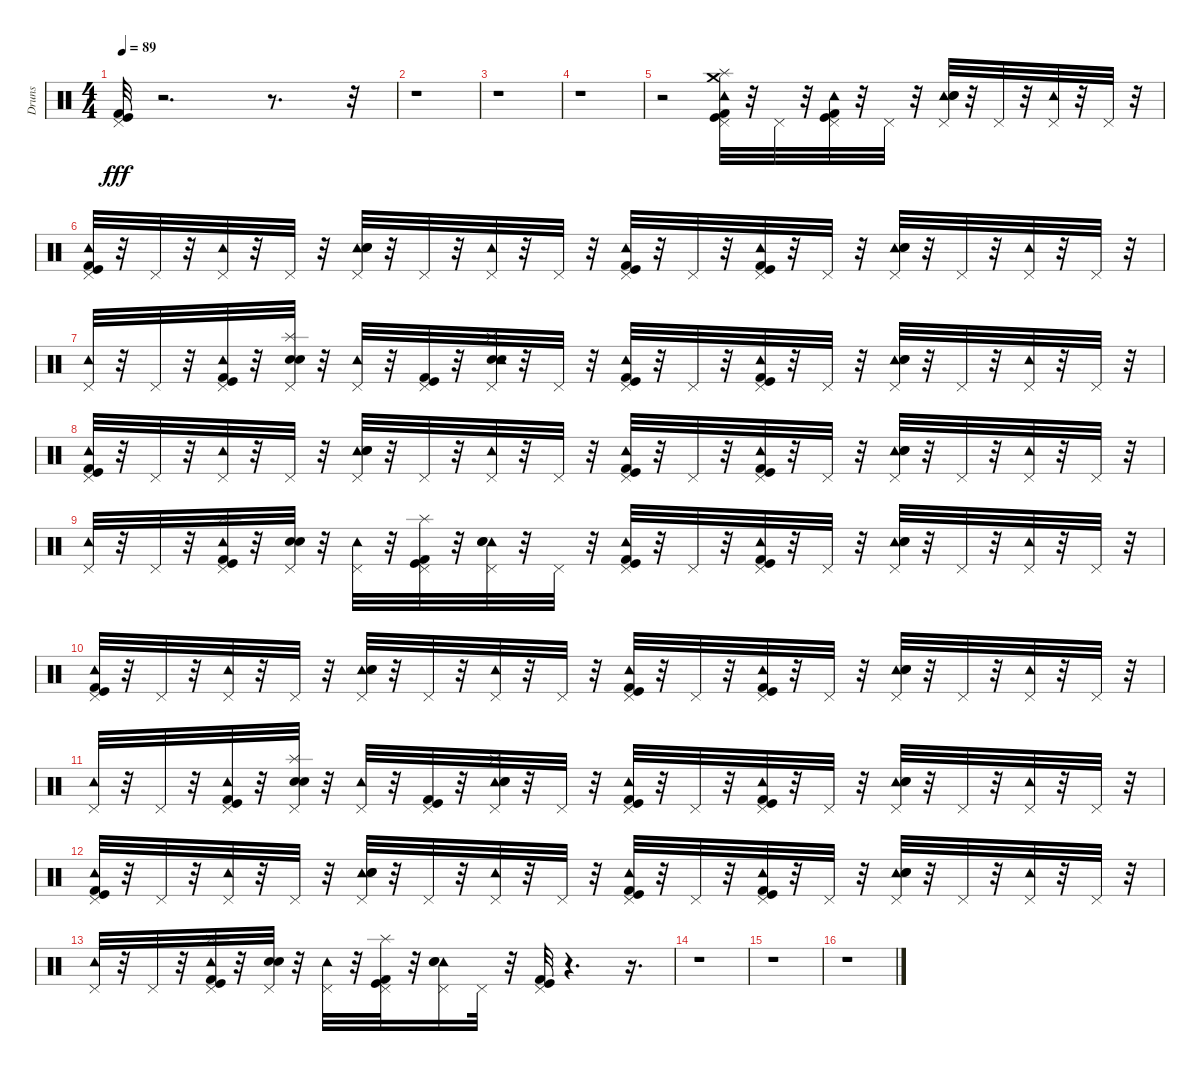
\track ("Druns" "Druns") {instrument percussion}
\staff {score}
\articulation defaults
\ts (4 4)
\tempo 89
\clef neutral
\ks c
("Pedal Hi-Hat (hit)" "Kick (hit) 2" "Kick (hit)").32{dy fff} r.2{d} r.8{d} r.32 |
r.1 |
r.1 |
r.1 |
r.2 ("Kick (hit)" "Splash (hit)" "Tambourine (hit)" "Kick (hit) 2" "Crash medium (hit)" "Pedal Hi-Hat (hit)").32 r.32 "Pedal Hi-Hat (hit)".32 r.32 ("Kick (hit) 2" "Kick (hit)" "Tambourine (hit)" "Pedal Hi-Hat (hit)").32 r.32 "Pedal Hi-Hat (hit)".32 r.32 ("Tambourine (hit)" "Snare (hit) 2" "Electric Snare (hit)" "Pedal Hi-Hat (hit)").32 r.32 "Pedal Hi-Hat (hit)".32 r.32 ("Tambourine (hit)" "Pedal Hi-Hat (hit)").32 r.32 "Pedal Hi-Hat (hit)".32 r.32 |
("Pedal Hi-Hat (hit)" "Kick (hit)" "Kick (hit) 2" "Tambourine (hit)").32 r.32 "Pedal Hi-Hat (hit)".32 r.32 ("Tambourine (hit)" "Pedal Hi-Hat (hit)").32 r.32 "Pedal Hi-Hat (hit)".32 r.32 ("Tambourine (hit)" "Pedal Hi-Hat (hit)" "Electric Snare (hit)" "Snare (hit) 2").32 r.32 "Pedal Hi-Hat (hit)".32 r.32 ("Tambourine (hit)" "Pedal Hi-Hat (hit)").32 r.32 "Pedal Hi-Hat (hit)".32 r.32 ("Kick (hit)" "Pedal Hi-Hat (hit)" "Tambourine (hit)" "Kick (hit) 2").32 r.32 "Pedal Hi-Hat (hit)".32 r.32 ("Tambourine (hit)" "Kick (hit) 2" "Kick (hit)" "Pedal Hi-Hat (hit)").32 r.32 "Pedal Hi-Hat (hit)".32 r.32 ("Tambourine (hit)" "Snare (hit) 2" "Pedal Hi-Hat (hit)" "Electric Snare (hit)").32 r.32 "Pedal Hi-Hat (hit)".32 r.32 ("Tambourine (hit)" "Pedal Hi-Hat (hit)").32 r.32 "Pedal Hi-Hat (hit)".32 r.32 |
("Tambourine (hit)" "Pedal Hi-Hat (hit)").32 r.32 "Pedal Hi-Hat (hit)".32 r.32 ("Tambourine (hit)" "Pedal Hi-Hat (hit)" "Kick (hit) 2" "Kick (hit)").32 r.32 ("Splash (hit)" "Electric Snare (hit)" "Snare (hit) 2" "Pedal Hi-Hat (hit)").32 r.32 ("Tambourine (hit)" "Pedal Hi-Hat (hit)").32 r.32 ("Kick (hit) 2" "Kick (hit)" "Pedal Hi-Hat (hit)").32 r.32 ("Snare (hit) 2" "Splash (hit)" "Tambourine (hit)" "Pedal Hi-Hat (hit)" "Electric Snare (hit)").32 r.32 "Pedal Hi-Hat (hit)".32 r.32 ("Tambourine (hit)" "Kick (hit) 2" "Kick (hit)" "Pedal Hi-Hat (hit)").32 r.32 "Pedal Hi-Hat (hit)".32 r.32 ("Tambourine (hit)" "Pedal Hi-Hat (hit)" "Kick (hit) 2" "Kick (hit)").32 r.32 "Pedal Hi-Hat (hit)".32 r.32 ("Tambourine (hit)" "Snare (hit) 2" "Electric Snare (hit)" "Pedal Hi-Hat (hit)").32 r.32 "Pedal Hi-Hat (hit)".32 r.32 ("Tambourine (hit)" "Pedal Hi-Hat (hit)").32 r.32 "Pedal Hi-Hat (hit)".32 r.32 |
("Tambourine (hit)" "Kick (hit) 2" "Kick (hit)" "Pedal Hi-Hat (hit)").32 r.32 "Pedal Hi-Hat (hit)".32 r.32 ("Tambourine (hit)" "Pedal Hi-Hat (hit)").32 r.32 "Pedal Hi-Hat (hit)".32 r.32 ("Tambourine (hit)" "Electric Snare (hit)" "Snare (hit) 2" "Pedal Hi-Hat (hit)").32 r.32 "Pedal Hi-Hat (hit)".32 r.32 ("Tambourine (hit)" "Pedal Hi-Hat (hit)").32 r.32 "Pedal Hi-Hat (hit)".32 r.32 ("Tambourine (hit)" "Kick (hit) 2" "Kick (hit)" "Pedal Hi-Hat (hit)").32 r.32 "Pedal Hi-Hat (hit)".32 r.32 ("Tambourine (hit)" "Kick (hit) 2" "Kick (hit)" "Pedal Hi-Hat (hit)").32 r.32 "Pedal Hi-Hat (hit)".32 r.32 ("Tambourine (hit)" "Electric Snare (hit)" "Snare (hit) 2" "Pedal Hi-Hat (hit)").32 r.32 "Pedal Hi-Hat (hit)".32 r.32 ("Tambourine (hit)" "Pedal Hi-Hat (hit)").32 r.32 "Pedal Hi-Hat (hit)".32 r.32 |
("Tambourine (hit)" "Pedal Hi-Hat (hit)").32 r.32 "Pedal Hi-Hat (hit)".32 r.32 ("Tambourine (hit)" "Kick (hit) 2" "Kick (hit)" "Pedal Hi-Hat (hit)" "Splash (hit)").32 r.32 ("Electric Snare (hit)" "Snare (hit) 2" "Pedal Hi-Hat (hit)").32 r.32 ("Tambourine (hit)" "Pedal Hi-Hat (hit)").32 r.32 ("Kick (hit) 2" "Kick (hit)" "Pedal Hi-Hat (hit)" "Splash (hit)").32 r.32 ("Tambourine (hit)" "Snare (hit) 2" "Electric Snare (hit)" "Pedal Hi-Hat (hit)").32 r.32 "Pedal Hi-Hat (hit)".32 r.32 ("Tambourine (hit)" "Kick (hit) 2" "Kick (hit)" "Pedal Hi-Hat (hit)").32 r.32 "Pedal Hi-Hat (hit)".32 r.32 ("Tambourine (hit)" "Pedal Hi-Hat (hit)" "Kick (hit) 2" "Kick (hit)").32 r.32 "Pedal Hi-Hat (hit)".32 r.32 ("Tambourine (hit)" "Snare (hit) 2" "Electric Snare (hit)" "Pedal Hi-Hat (hit)").32 r.32 "Pedal Hi-Hat (hit)".32 r.32 ("Tambourine (hit)" "Pedal Hi-Hat (hit)").32 r.32 "Pedal Hi-Hat (hit)".32 r.32 |
("Tambourine (hit)" "Kick (hit) 2" "Kick (hit)" "Pedal Hi-Hat (hit)").32 r.32 "Pedal Hi-Hat (hit)".32 r.32 ("Tambourine (hit)" "Pedal Hi-Hat (hit)").32 r.32 "Pedal Hi-Hat (hit)".32 r.32 ("Tambourine (hit)" "Electric Snare (hit)" "Snare (hit) 2" "Pedal Hi-Hat (hit)").32 r.32 "Pedal Hi-Hat (hit)".32 r.32 ("Tambourine (hit)" "Pedal Hi-Hat (hit)").32 r.32 "Pedal Hi-Hat (hit)".32 r.32 ("Tambourine (hit)" "Kick (hit) 2" "Kick (hit)" "Pedal Hi-Hat (hit)").32 r.32 "Pedal Hi-Hat (hit)".32 r.32 ("Tambourine (hit)" "Kick (hit) 2" "Kick (hit)" "Pedal Hi-Hat (hit)").32 r.32 "Pedal Hi-Hat (hit)".32 r.32 ("Tambourine (hit)" "Electric Snare (hit)" "Snare (hit) 2" "Pedal Hi-Hat (hit)").32 r.32 "Pedal Hi-Hat (hit)".32 r.32 ("Tambourine (hit)" "Pedal Hi-Hat (hit)").32 r.32 "Pedal Hi-Hat (hit)".32 r.32 |
("Tambourine (hit)" "Pedal Hi-Hat (hit)").32 r.32 "Pedal Hi-Hat (hit)".32 r.32 ("Tambourine (hit)" "Kick (hit) 2" "Kick (hit)" "Pedal Hi-Hat (hit)").32 r.32 ("Splash (hit)" "Electric Snare (hit)" "Snare (hit) 2" "Pedal Hi-Hat (hit)").32 r.32 ("Tambourine (hit)" "Pedal Hi-Hat (hit)").32 r.32 ("Kick (hit) 2" "Kick (hit)" "Pedal Hi-Hat (hit)").32 r.32 ("Tambourine (hit)" "Splash (hit)" "Snare (hit) 2" "Electric Snare (hit)" "Pedal Hi-Hat (hit)").32 r.32 "Pedal Hi-Hat (hit)".32 r.32 ("Tambourine (hit)" "Kick (hit) 2" "Kick (hit)" "Pedal Hi-Hat (hit)").32 r.32 "Pedal Hi-Hat (hit)".32 r.32 ("Tambourine (hit)" "Pedal Hi-Hat (hit)" "Kick (hit) 2" "Kick (hit)").32 r.32 "Pedal Hi-Hat (hit)".32 r.32 ("Tambourine (hit)" "Snare (hit) 2" "Electric Snare (hit)" "Pedal Hi-Hat (hit)").32 r.32 "Pedal Hi-Hat (hit)".32 r.32 ("Tambourine (hit)" "Pedal Hi-Hat (hit)").32 r.32 "Pedal Hi-Hat (hit)".32 r.32 |
("Tambourine (hit)" "Kick (hit) 2" "Kick (hit)" "Pedal Hi-Hat (hit)").32 r.32 "Pedal Hi-Hat (hit)".32 r.32 ("Tambourine (hit)" "Pedal Hi-Hat (hit)").32 r.32 "Pedal Hi-Hat (hit)".32 r.32 ("Tambourine (hit)" "Electric Snare (hit)" "Snare (hit) 2" "Pedal Hi-Hat (hit)").32 r.32 "Pedal Hi-Hat (hit)".32 r.32 ("Tambourine (hit)" "Pedal Hi-Hat (hit)").32 r.32 "Pedal Hi-Hat (hit)".32 r.32 ("Tambourine (hit)" "Kick (hit) 2" "Kick (hit)" "Pedal Hi-Hat (hit)").32 r.32 "Pedal Hi-Hat (hit)".32 r.32 ("Tambourine (hit)" "Kick (hit) 2" "Kick (hit)" "Pedal Hi-Hat (hit)").32 r.32 "Pedal Hi-Hat (hit)".32 r.32 ("Tambourine (hit)" "Electric Snare (hit)" "Snare (hit) 2" "Pedal Hi-Hat (hit)").32 r.32 "Pedal Hi-Hat (hit)".32 r.32 ("Tambourine (hit)" "Pedal Hi-Hat (hit)").32 r.32 "Pedal Hi-Hat (hit)".32 r.32 |
("Tambourine (hit)" "Pedal Hi-Hat (hit)").32 r.32 "Pedal Hi-Hat (hit)".32 r.32 ("Tambourine (hit)" "Kick (hit) 2" "Kick (hit)" "Pedal Hi-Hat (hit)" "Splash (hit)").32 r.32 ("Electric Snare (hit)" "Snare (hit) 2" "Pedal Hi-Hat (hit)").32 r.32 ("Tambourine (hit)" "Pedal Hi-Hat (hit)").32 r.32 ("Kick (hit) 2" "Kick (hit)" "Pedal Hi-Hat (hit)" "Splash (hit)").32 r.32 ("Tambourine (hit)" "Snare (hit) 2" "Electric Snare (hit)" "Pedal Hi-Hat (hit)").16 "Pedal Hi-Hat (hit)".32 r.32 ("Pedal Hi-Hat (hit)" "Kick (hit)" "Kick (hit) 2").32 r.4{d} r.16{d} |
r.1 |
r.1 |
r.1
